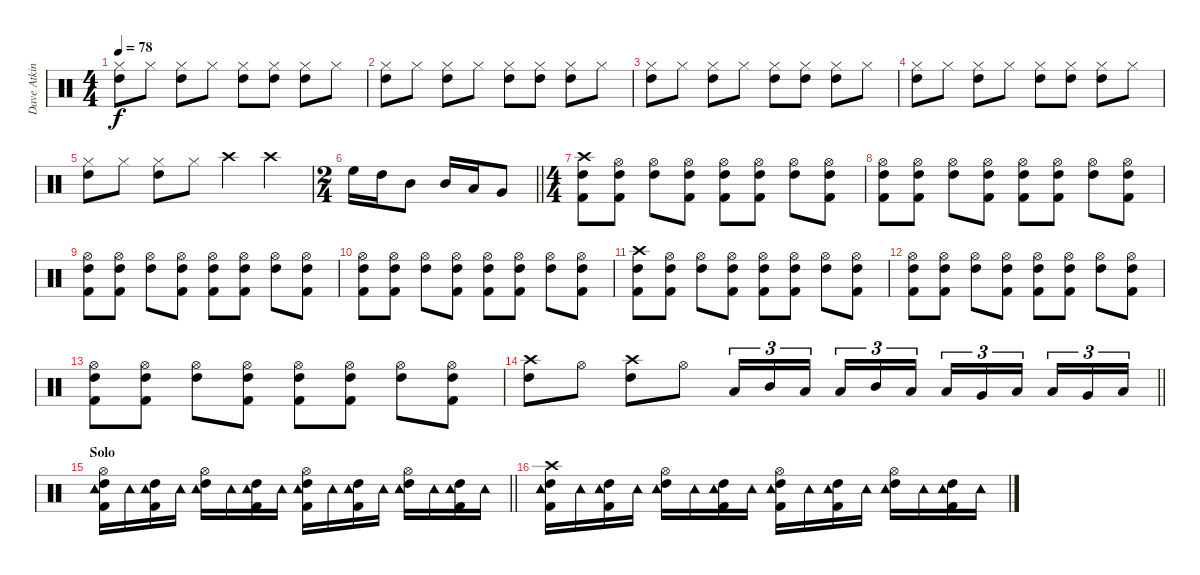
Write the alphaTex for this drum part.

\track ("Dave Atkins" "Dave Atkin") {instrument percussion}
\staff {score}
\articulation defaults
\ts (4 4)
\tempo 78
\clef neutral
\ks c
("Hi-Hat (closed)" "High Tom (hit)").8{dy f} "Hi-Hat (closed)".8 ("Hi-Hat (closed)" "High Tom (hit)").8 "Hi-Hat (closed)".8 ("Hi-Hat (closed)" "High Tom (hit)").8 ("Hi-Hat (closed)" "High Tom (hit)").8 ("Hi-Hat (closed)" "High Tom (hit)").8 "Hi-Hat (closed)".8 |
("Hi-Hat (closed)" "High Tom (hit)").8 "Hi-Hat (closed)".8 ("Hi-Hat (closed)" "High Tom (hit)").8 "Hi-Hat (closed)".8 ("Hi-Hat (closed)" "High Tom (hit)").8 ("Hi-Hat (closed)" "High Tom (hit)").8 ("Hi-Hat (closed)" "High Tom (hit)").8 "Hi-Hat (closed)".8 |
("Hi-Hat (closed)" "High Tom (hit)").8 "Hi-Hat (closed)".8 ("Hi-Hat (closed)" "High Tom (hit)").8 "Hi-Hat (closed)".8 ("Hi-Hat (closed)" "High Tom (hit)").8 ("Hi-Hat (closed)" "High Tom (hit)").8 ("Hi-Hat (closed)" "High Tom (hit)").8 "Hi-Hat (closed)".8 |
("Hi-Hat (closed)" "High Tom (hit)").8 "Hi-Hat (closed)".8 ("Hi-Hat (closed)" "High Tom (hit)").8 "Hi-Hat (closed)".8 ("Hi-Hat (closed)" "High Tom (hit)").8 ("Hi-Hat (closed)" "High Tom (hit)").8 ("Hi-Hat (closed)" "High Tom (hit)").8 "Hi-Hat (closed)".8 |
("Hi-Hat (closed)" "High Tom (hit)").8 "Hi-Hat (closed)".8 ("Hi-Hat (closed)" "High Tom (hit)").8 "Hi-Hat (closed)".8 "Crash high (hit)".4 "Crash high (hit)".4 |
\ts (2 4)
\barLineRight lightlight "High Floor Tom (hit)".16 "High Tom (hit)".16 "Mid Tom (hit)".8 "Mid Tom (hit)".16 "Low Tom (hit)".16 "Very Low Tom (hit)".8
|
\ts (4 4)
("Crash high (hit)" "High Tom (hit)" "Kick (hit) 2").8 ("Hi-Hat (open)" "High Tom (hit)" "Kick (hit) 2").8 ("Hi-Hat (open)" "High Tom (hit)").8 ("Hi-Hat (open)" "High Tom (hit)" "Kick (hit) 2").8 ("Hi-Hat (open)" "High Tom (hit)" "Kick (hit) 2").8 ("Hi-Hat (open)" "High Tom (hit)" "Kick (hit) 2").8 ("Hi-Hat (open)" "High Tom (hit)").8 ("Hi-Hat (open)" "High Tom (hit)" "Kick (hit) 2").8 |
("Hi-Hat (open)" "High Tom (hit)" "Kick (hit) 2").8 ("Hi-Hat (open)" "High Tom (hit)" "Kick (hit) 2").8 ("Hi-Hat (open)" "High Tom (hit)").8 ("Hi-Hat (open)" "High Tom (hit)" "Kick (hit) 2").8 ("Hi-Hat (open)" "High Tom (hit)" "Kick (hit) 2").8 ("Hi-Hat (open)" "High Tom (hit)" "Kick (hit) 2").8 ("Hi-Hat (open)" "High Tom (hit)").8 ("Hi-Hat (open)" "High Tom (hit)" "Kick (hit) 2").8 |
("Hi-Hat (open)" "High Tom (hit)" "Kick (hit) 2").8 ("Hi-Hat (open)" "High Tom (hit)" "Kick (hit) 2").8 ("Hi-Hat (open)" "High Tom (hit)").8 ("Hi-Hat (open)" "High Tom (hit)" "Kick (hit) 2").8 ("Hi-Hat (open)" "High Tom (hit)" "Kick (hit) 2").8 ("Hi-Hat (open)" "High Tom (hit)" "Kick (hit) 2").8 ("Hi-Hat (open)" "High Tom (hit)").8 ("Hi-Hat (open)" "High Tom (hit)" "Kick (hit) 2").8 |
("Hi-Hat (open)" "High Tom (hit)" "Kick (hit) 2").8 ("Hi-Hat (open)" "High Tom (hit)" "Kick (hit) 2").8 ("Hi-Hat (open)" "High Tom (hit)").8 ("Hi-Hat (open)" "High Tom (hit)" "Kick (hit) 2").8 ("Hi-Hat (open)" "High Tom (hit)" "Kick (hit) 2").8 ("Hi-Hat (open)" "High Tom (hit)" "Kick (hit) 2").8 ("Hi-Hat (open)" "High Tom (hit)").8 ("Hi-Hat (open)" "High Tom (hit)" "Kick (hit) 2").8 |
("Crash high (hit)" "High Tom (hit)" "Kick (hit) 2").8 ("Hi-Hat (open)" "High Tom (hit)" "Kick (hit) 2").8 ("Hi-Hat (open)" "High Tom (hit)").8 ("Hi-Hat (open)" "High Tom (hit)" "Kick (hit) 2").8 ("Hi-Hat (open)" "High Tom (hit)" "Kick (hit) 2").8 ("Hi-Hat (open)" "High Tom (hit)" "Kick (hit) 2").8 ("Hi-Hat (open)" "High Tom (hit)").8 ("Hi-Hat (open)" "High Tom (hit)" "Kick (hit) 2").8 |
("Hi-Hat (open)" "High Tom (hit)" "Kick (hit) 2").8 ("Hi-Hat (open)" "High Tom (hit)" "Kick (hit) 2").8 ("Hi-Hat (open)" "High Tom (hit)").8 ("Hi-Hat (open)" "High Tom (hit)" "Kick (hit) 2").8 ("Hi-Hat (open)" "High Tom (hit)" "Kick (hit) 2").8 ("Hi-Hat (open)" "High Tom (hit)" "Kick (hit) 2").8 ("Hi-Hat (open)" "High Tom (hit)").8 ("Hi-Hat (open)" "High Tom (hit)" "Kick (hit) 2").8 |
("Hi-Hat (open)" "High Tom (hit)" "Kick (hit) 2").8 ("Hi-Hat (open)" "High Tom (hit)" "Kick (hit) 2").8 ("Hi-Hat (open)" "High Tom (hit)").8 ("Hi-Hat (open)" "High Tom (hit)" "Kick (hit) 2").8 ("Hi-Hat (open)" "High Tom (hit)" "Kick (hit) 2").8 ("Hi-Hat (open)" "High Tom (hit)" "Kick (hit) 2").8 ("Hi-Hat (open)" "High Tom (hit)").8 ("Hi-Hat (open)" "High Tom (hit)" "Kick (hit) 2").8 |
\barLineRight lightlight
("Crash high (hit)" "High Tom (hit)").8 "Hi-Hat (open)".8 ("Crash high (hit)" "High Tom (hit)").8 "Hi-Hat (open)".8 "Low Tom (hit)".16{tu (3 2)} "Mid Tom (hit)".16{tu (3 2)} "Low Tom (hit)".16{tu (3 2) beam splitsecondary} "Low Tom (hit)".16{tu (3 2)} "Mid Tom (hit)".16{tu (3 2)} "Low Tom (hit)".16{tu (3 2)} "Low Floor Tom (hit)".16{tu (3 2)} "Very Low Tom (hit)".16{tu (3 2)} "Low Floor Tom (hit)".16{tu (3 2) beam splitsecondary} "Low Floor Tom (hit)".16{tu (3 2)} "Very Low Tom (hit)".16{tu (3 2)} "Low Floor Tom (hit)".16{tu (3 2)} |
\section ("" "Solo")
\barLineRight lightlight
("Hi-Hat (open)" "High Tom (hit)" "Kick (hit) 2" "Tambourine (hit)").16 "Tambourine (hit)".16 ("High Tom (hit)" "Kick (hit) 2" "Tambourine (hit)").16 "Tambourine (hit)".16 ("Hi-Hat (open)" "High Tom (hit)" "Tambourine (hit)").16 "Tambourine (hit)".16 ("High Tom (hit)" "Kick (hit) 2" "Tambourine (hit)").16 "Tambourine (hit)".16 ("Hi-Hat (open)" "High Tom (hit)" "Kick (hit) 2" "Tambourine (hit)").16 "Tambourine (hit)".16 ("High Tom (hit)" "Kick (hit) 2" "Tambourine (hit)").16 "Tambourine (hit)".16 ("Hi-Hat (open)" "High Tom (hit)" "Tambourine (hit)").16 "Tambourine (hit)".16 ("High Tom (hit)" "Kick (hit) 2" "Tambourine (hit)").16 "Tambourine (hit)".16 |
\section ("" "")
("Crash high (hit)" "High Tom (hit)" "Kick (hit) 2" "Tambourine (hit)").16 "Tambourine (hit)".16 ("High Tom (hit)" "Kick (hit) 2" "Tambourine (hit)").16 "Tambourine (hit)".16 ("Hi-Hat (open)" "High Tom (hit)" "Tambourine (hit)").16 "Tambourine (hit)".16 ("High Tom (hit)" "Kick (hit) 2" "Tambourine (hit)").16 "Tambourine (hit)".16 ("Hi-Hat (open)" "High Tom (hit)" "Kick (hit) 2" "Tambourine (hit)").16 "Tambourine (hit)".16 ("High Tom (hit)" "Kick (hit) 2" "Tambourine (hit)").16 "Tambourine (hit)".16 ("Hi-Hat (open)" "High Tom (hit)" "Tambourine (hit)").16 "Tambourine (hit)".16 ("High Tom (hit)" "Kick (hit) 2" "Tambourine (hit)").16 "Tambourine (hit)".16
